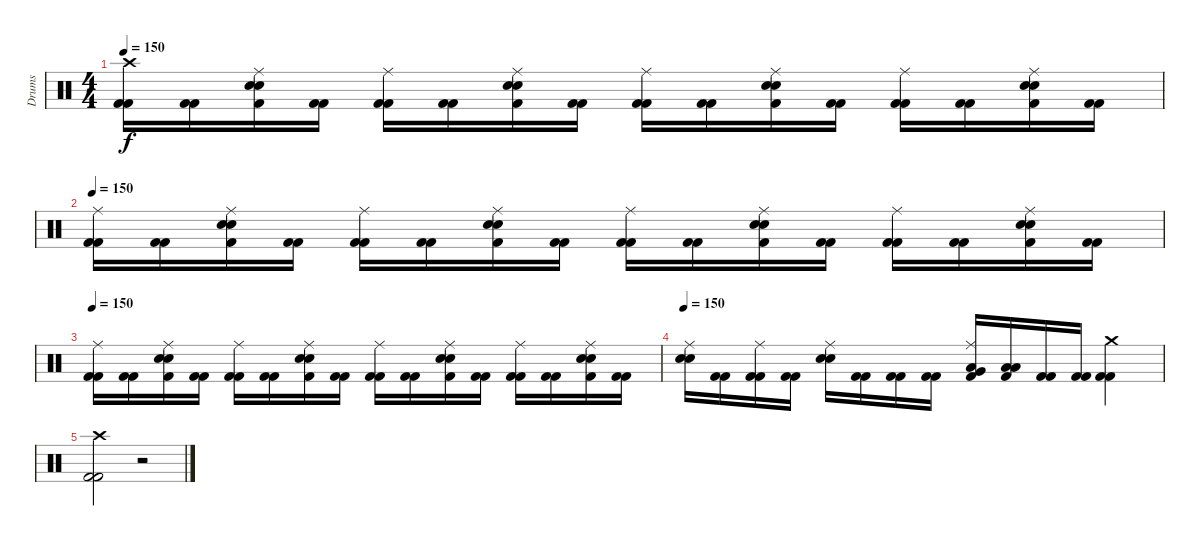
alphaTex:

\track ("Drums" "Drums") {instrument percussion}
\staff {score}
\articulation defaults
\ts (4 4)
\tempo 150
\clef neutral
\ks c
("Crash high (hit)" "Kick (hit) 2" "Kick (hit) 2").16{dy f} ("Kick (hit) 2" "Kick (hit) 2").16 ("Ride (middle)" "Snare (hit) 2" "Snare (hit) 2" "Kick (hit) 2").16 ("Kick (hit) 2" "Kick (hit) 2").16 ("Ride (middle)" "Kick (hit) 2" "Kick (hit) 2").16 ("Kick (hit) 2" "Kick (hit) 2").16 ("Ride (middle)" "Snare (hit) 2" "Snare (hit) 2" "Kick (hit) 2").16 ("Kick (hit) 2" "Kick (hit) 2").16 ("Ride (middle)" "Kick (hit) 2" "Kick (hit) 2").16 ("Kick (hit) 2" "Kick (hit) 2").16 ("Ride (middle)" "Snare (hit) 2" "Snare (hit) 2" "Kick (hit) 2").16 ("Kick (hit) 2" "Kick (hit) 2").16 ("Ride (middle)" "Kick (hit) 2" "Kick (hit) 2").16 ("Kick (hit) 2" "Kick (hit) 2").16 ("Ride (middle)" "Snare (hit) 2" "Snare (hit) 2" "Kick (hit) 2").16 ("Kick (hit) 2" "Kick (hit) 2").16 |
\tempo 150
("Ride (middle)" "Kick (hit) 2" "Kick (hit) 2").16 ("Kick (hit) 2" "Kick (hit) 2").16 ("Ride (middle)" "Snare (hit) 2" "Snare (hit) 2" "Kick (hit) 2").16 ("Kick (hit) 2" "Kick (hit) 2").16 ("Ride (middle)" "Kick (hit) 2" "Kick (hit) 2").16 ("Kick (hit) 2" "Kick (hit) 2").16 ("Ride (middle)" "Snare (hit) 2" "Snare (hit) 2" "Kick (hit) 2").16 ("Kick (hit) 2" "Kick (hit) 2").16 ("Ride (middle)" "Kick (hit) 2" "Kick (hit) 2").16 ("Kick (hit) 2" "Kick (hit) 2").16 ("Ride (middle)" "Snare (hit) 2" "Snare (hit) 2" "Kick (hit) 2").16 ("Kick (hit) 2" "Kick (hit) 2").16 ("Ride (middle)" "Kick (hit) 2" "Kick (hit) 2").16 ("Kick (hit) 2" "Kick (hit) 2").16 ("Ride (middle)" "Snare (hit) 2" "Snare (hit) 2" "Kick (hit) 2").16 ("Kick (hit) 2" "Kick (hit) 2").16 |
\tempo 150
("Ride (middle)" "Kick (hit) 2" "Kick (hit) 2").16 ("Kick (hit) 2" "Kick (hit) 2").16 ("Ride (middle)" "Snare (hit) 2" "Snare (hit) 2" "Kick (hit) 2").16 ("Kick (hit) 2" "Kick (hit) 2").16 ("Ride (middle)" "Kick (hit) 2" "Kick (hit) 2").16 ("Kick (hit) 2" "Kick (hit) 2").16 ("Ride (middle)" "Snare (hit) 2" "Snare (hit) 2" "Kick (hit) 2").16 ("Kick (hit) 2" "Kick (hit) 2").16 ("Ride (middle)" "Kick (hit) 2" "Kick (hit) 2").16 ("Kick (hit) 2" "Kick (hit) 2").16 ("Ride (middle)" "Snare (hit) 2" "Snare (hit) 2" "Kick (hit) 2").16 ("Kick (hit) 2" "Kick (hit) 2").16 ("Ride (middle)" "Kick (hit) 2" "Kick (hit) 2").16 ("Kick (hit) 2" "Kick (hit) 2").16 ("Ride (middle)" "Snare (hit) 2" "Snare (hit) 2" "Kick (hit) 2").16 ("Kick (hit) 2" "Kick (hit) 2").16 |
\tempo 150
("Ride (middle)" "Snare (hit) 2" "Snare (hit) 2").16 ("Kick (hit) 2" "Kick (hit) 2").16 ("Ride (middle)" "Kick (hit) 2" "Kick (hit) 2").16 ("Kick (hit) 2" "Kick (hit) 2").16 ("Ride (middle)" "Snare (hit) 2" "Snare (hit) 2").16 ("Kick (hit) 2" "Kick (hit) 2").16 ("Kick (hit) 2" "Kick (hit) 2").16 ("Kick (hit) 2" "Kick (hit) 2").16 ("Ride (middle)" "Very Low Tom (hit)" "Low Tom (hit)" "Kick (hit) 2").16 ("Low Tom (hit)" "Low Tom (hit)" "Kick (hit) 2").16 ("Kick (hit) 2" "Kick (hit) 2").16 ("Kick (hit) 2" "Kick (hit) 2").16 ("Crash medium (hit)" "Kick (hit) 2" "Kick (hit) 2").4 |
("Crash high (hit)" "Kick (hit) 2" "Kick (hit) 2").2 r.2
